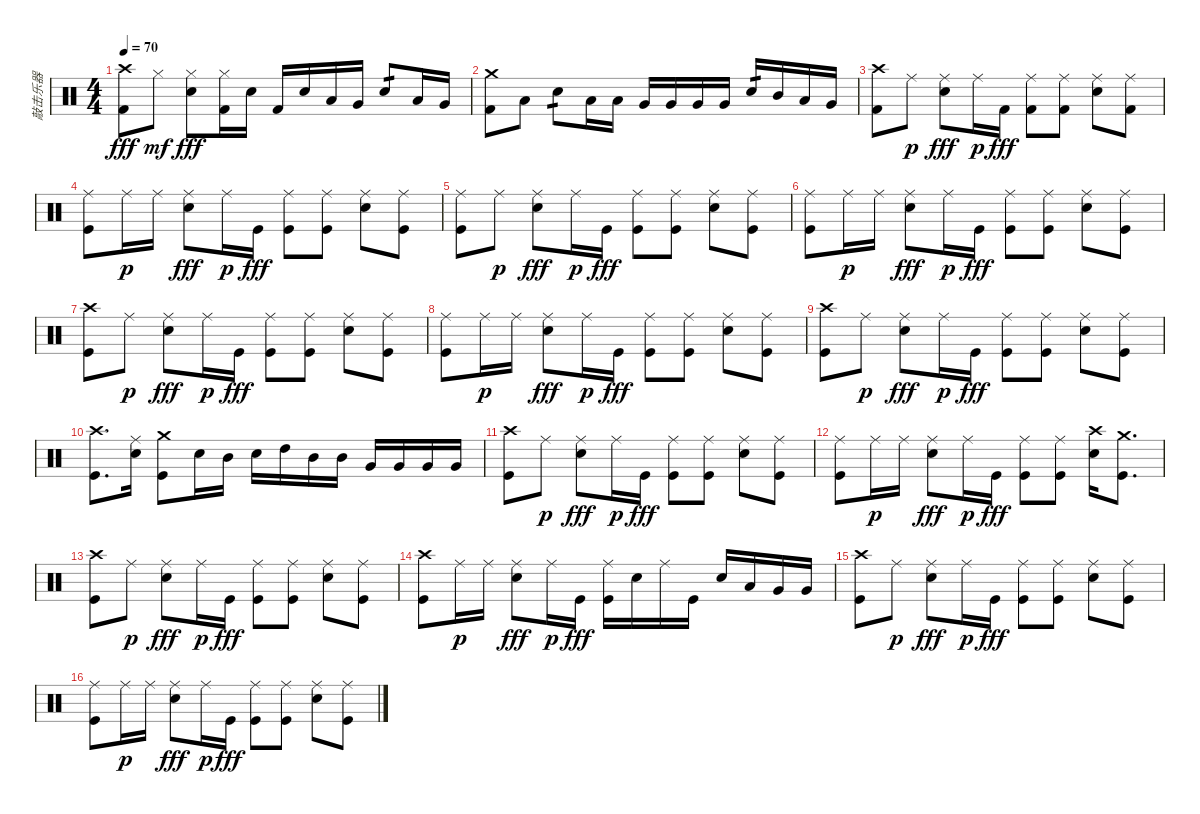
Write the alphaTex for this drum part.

\track ("敲击乐器" "敲击乐器") {instrument percussion}
\staff {score}
\articulation defaults
\ts (4 4)
\tempo 70
\clef neutral
\ks c
("Crash high (hit)" "Kick (hit) 2").8{dy fff} "Hi-Hat (closed)".8{dy mf} ("Hi-Hat (closed)" "Electric Snare (hit)").8{dy fff} ("Hi-Hat (closed)" "Kick (hit) 2").16 "Electric Snare (hit)".16 "Kick (hit) 2".16 "Electric Snare (hit)".16 "Low Tom (hit)".16 "Very Low Tom (hit)".16 "Electric Snare (hit)".8{tp 1} "Low Tom (hit)".16 "Very Low Tom (hit)".16 |
("Crash medium (hit)" "Kick (hit) 2").8 "Low Tom (hit)".8 "Electric Snare (hit)".8{tp 1} "Low Tom (hit)".16 "Low Tom (hit)".16 "Very Low Tom (hit)".16 "Very Low Tom (hit)".16 "Very Low Tom (hit)".16 "Very Low Tom (hit)".16 "Electric Snare (hit)".16{tp 1} "Mid Tom (hit)".16 "Low Tom (hit)".16 "Very Low Tom (hit)".16 |
("Crash high (hit)" "Kick (hit) 2").8 "Ride (middle)".8{dy p} ("Ride (middle)" "Electric Snare (hit)").8{dy fff} "Ride (middle)".16{dy p} "Kick (hit) 2".16{dy fff} ("Ride (middle)" "Kick (hit) 2").8 ("Ride (middle)" "Kick (hit) 2").8 ("Ride (middle)" "Electric Snare (hit)").8 ("Ride (middle)" "Kick (hit) 2").8 |
("Ride (middle)" "Kick (hit)").8 "Ride (middle)".16{dy p} "Ride (middle)".16 ("Ride (middle)" "Electric Snare (hit)").8{dy fff} "Ride (middle)".16{dy p} "Kick (hit)".16{dy fff} ("Ride (middle)" "Kick (hit)").8 ("Ride (middle)" "Kick (hit)").8 ("Ride (middle)" "Electric Snare (hit)").8 ("Ride (middle)" "Kick (hit)").8 |
("Ride (middle)" "Kick (hit)").8 "Ride (middle)".8{dy p} ("Ride (middle)" "Electric Snare (hit)").8{dy fff} "Ride (middle)".16{dy p} "Kick (hit)".16{dy fff} ("Ride (middle)" "Kick (hit)").8 ("Ride (middle)" "Kick (hit)").8 ("Ride (middle)" "Electric Snare (hit)").8 ("Ride (middle)" "Kick (hit)").8 |
("Ride (middle)" "Kick (hit)").8 "Ride (middle)".16{dy p} "Ride (middle)".16 ("Ride (middle)" "Electric Snare (hit)").8{dy fff} "Ride (middle)".16{dy p} "Kick (hit)".16{dy fff} ("Ride (middle)" "Kick (hit)").8 ("Ride (middle)" "Kick (hit)").8 ("Ride (middle)" "Electric Snare (hit)").8 ("Ride (middle)" "Kick (hit)").8 |
("Crash high (hit)" "Kick (hit)").8 "Ride (middle)".8{dy p} ("Ride (middle)" "Electric Snare (hit)").8{dy fff} "Ride (middle)".16{dy p} "Kick (hit)".16{dy fff} ("Ride (middle)" "Kick (hit)").8 ("Ride (middle)" "Kick (hit)").8 ("Ride (middle)" "Electric Snare (hit)").8 ("Ride (middle)" "Kick (hit)").8 |
("Ride (middle)" "Kick (hit)").8 "Ride (middle)".16{dy p} "Ride (middle)".16 ("Ride (middle)" "Electric Snare (hit)").8{dy fff} "Ride (middle)".16{dy p} "Kick (hit)".16{dy fff} ("Ride (middle)" "Kick (hit)").8 ("Ride (middle)" "Kick (hit)").8 ("Ride (middle)" "Electric Snare (hit)").8 ("Ride (middle)" "Kick (hit)").8 |
("Crash high (hit)" "Kick (hit)").8 "Ride (middle)".8{dy p} ("Ride (middle)" "Electric Snare (hit)").8{dy fff} "Ride (middle)".16{dy p} "Kick (hit)".16{dy fff} ("Ride (middle)" "Kick (hit)").8 ("Ride (middle)" "Kick (hit)").8 ("Ride (middle)" "Electric Snare (hit)").8 ("Ride (middle)" "Kick (hit)").8 |
("Crash high (hit)" "Kick (hit)").8{d} ("Ride (middle)" "Electric Snare (hit)").16 ("Crash medium (hit)" "Kick (hit)").8 "Electric Snare (hit)".16 "Mid Tom (hit)".16 "Electric Snare (hit)".16 "High Tom (hit)".16 "Mid Tom (hit)".16 "Mid Tom (hit)".16 "Very Low Tom (hit)".16 "Very Low Tom (hit)".16 "Very Low Tom (hit)".16 "Very Low Tom (hit)".16 |
("Crash high (hit)" "Kick (hit)").8 "Ride (middle)".8{dy p} ("Ride (middle)" "Electric Snare (hit)").8{dy fff} "Ride (middle)".16{dy p} "Kick (hit)".16{dy fff} ("Ride (middle)" "Kick (hit)").8 ("Ride (middle)" "Kick (hit)").8 ("Ride (middle)" "Electric Snare (hit)").8 ("Ride (middle)" "Kick (hit)").8 |
("Ride (middle)" "Kick (hit)").8 "Ride (middle)".16{dy p} "Ride (middle)".16 ("Ride (middle)" "Electric Snare (hit)").8{dy fff} "Ride (middle)".16{dy p} "Kick (hit)".16{dy fff} ("Ride (middle)" "Kick (hit)").8 ("Ride (middle)" "Kick (hit)").8 ("Crash high (hit)" "Electric Snare (hit)").16 ("Crash medium (hit)" "Kick (hit)").8{d} |
("Crash high (hit)" "Kick (hit)").8 "Ride (middle)".8{dy p} ("Ride (middle)" "Electric Snare (hit)").8{dy fff} "Ride (middle)".16{dy p} "Kick (hit)".16{dy fff} ("Ride (middle)" "Kick (hit)").8 ("Ride (middle)" "Kick (hit)").8 ("Ride (middle)" "Electric Snare (hit)").8 ("Ride (middle)" "Kick (hit)").8 |
("Crash high (hit)" "Kick (hit)").8 "Ride (middle)".16{dy p} "Ride (middle)".16 ("Ride (middle)" "Electric Snare (hit)").8{dy fff} "Ride (middle)".16{dy p} "Kick (hit)".16{dy fff} ("Ride (middle)" "Kick (hit)").16 "Electric Snare (hit)".16 "Ride (middle)".16 "Kick (hit)".16 "Electric Snare (hit)".16 "Low Tom (hit)".16 "Very Low Tom (hit)".16 "Very Low Tom (hit)".16 |
("Crash high (hit)" "Kick (hit)").8 "Ride (middle)".8{dy p} ("Ride (middle)" "Electric Snare (hit)").8{dy fff} "Ride (middle)".16{dy p} "Kick (hit)".16{dy fff} ("Ride (middle)" "Kick (hit)").8 ("Ride (middle)" "Kick (hit)").8 ("Ride (middle)" "Electric Snare (hit)").8 ("Ride (middle)" "Kick (hit)").8 |
("Ride (middle)" "Kick (hit)").8 "Ride (middle)".16{dy p} "Ride (middle)".16 ("Ride (middle)" "Electric Snare (hit)").8{dy fff} "Ride (middle)".16{dy p} "Kick (hit)".16{dy fff} ("Ride (middle)" "Kick (hit)").8 ("Ride (middle)" "Kick (hit)").8 ("Ride (middle)" "Electric Snare (hit)").8 ("Ride (middle)" "Kick (hit)").8
